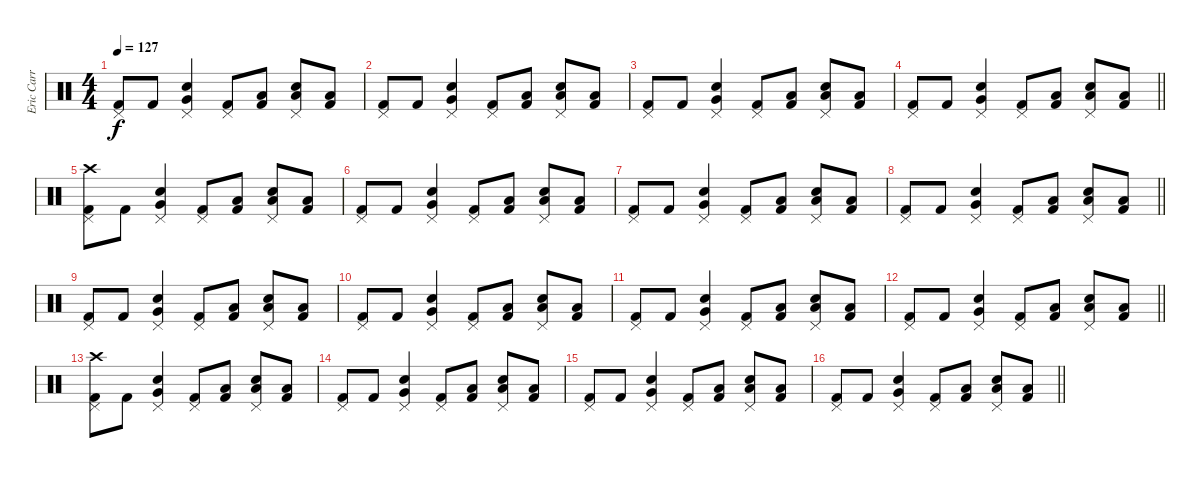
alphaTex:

\track ("Eric Carr (Drums)" "Eric Carr ") {instrument percussion}
\staff {score}
\articulation defaults
\ts (4 4)
\tempo 127
\clef neutral
\ks c
("Pedal Hi-Hat (hit)" "Kick (hit) 2").8{dy f} "Kick (hit) 2".8 ("Pedal Hi-Hat (hit)" "Very Low Tom (hit)" "Snare (hit) 2").4 ("Pedal Hi-Hat (hit)" "Kick (hit) 2").8 ("Low Tom (hit)" "Kick (hit) 2").8 ("Pedal Hi-Hat (hit)" "Low Floor Tom (hit)" "Snare (hit) 2").8 ("Low Tom (hit)" "Kick (hit) 2").8 |
("Pedal Hi-Hat (hit)" "Kick (hit) 2").8 "Kick (hit) 2".8 ("Pedal Hi-Hat (hit)" "Very Low Tom (hit)" "Snare (hit) 2").4 ("Pedal Hi-Hat (hit)" "Kick (hit) 2").8 ("Low Tom (hit)" "Kick (hit) 2").8 ("Pedal Hi-Hat (hit)" "Low Floor Tom (hit)" "Snare (hit) 2").8 ("Low Tom (hit)" "Kick (hit) 2").8 |
("Pedal Hi-Hat (hit)" "Kick (hit) 2").8 "Kick (hit) 2".8 ("Pedal Hi-Hat (hit)" "Very Low Tom (hit)" "Snare (hit) 2").4 ("Pedal Hi-Hat (hit)" "Kick (hit) 2").8 ("Low Tom (hit)" "Kick (hit) 2").8 ("Pedal Hi-Hat (hit)" "Low Floor Tom (hit)" "Snare (hit) 2").8 ("Low Tom (hit)" "Kick (hit) 2").8 |
\barLineRight lightlight
("Pedal Hi-Hat (hit)" "Kick (hit) 2").8 "Kick (hit) 2".8 ("Pedal Hi-Hat (hit)" "Very Low Tom (hit)" "Snare (hit) 2").4 ("Pedal Hi-Hat (hit)" "Kick (hit) 2").8 ("Low Tom (hit)" "Kick (hit) 2").8 ("Pedal Hi-Hat (hit)" "Low Floor Tom (hit)" "Snare (hit) 2").8 ("Low Tom (hit)" "Kick (hit) 2").8 |
("Crash high (hit)" "Pedal Hi-Hat (hit)" "Kick (hit) 2").8 "Kick (hit) 2".8 ("Pedal Hi-Hat (hit)" "Very Low Tom (hit)" "Snare (hit) 2").4 ("Pedal Hi-Hat (hit)" "Kick (hit) 2").8 ("Low Tom (hit)" "Kick (hit) 2").8 ("Pedal Hi-Hat (hit)" "Low Floor Tom (hit)" "Snare (hit) 2").8 ("Low Tom (hit)" "Kick (hit) 2").8 |
("Pedal Hi-Hat (hit)" "Kick (hit) 2").8 "Kick (hit) 2".8 ("Pedal Hi-Hat (hit)" "Very Low Tom (hit)" "Snare (hit) 2").4 ("Pedal Hi-Hat (hit)" "Kick (hit) 2").8 ("Low Tom (hit)" "Kick (hit) 2").8 ("Pedal Hi-Hat (hit)" "Low Floor Tom (hit)" "Snare (hit) 2").8 ("Low Tom (hit)" "Kick (hit) 2").8 |
("Pedal Hi-Hat (hit)" "Kick (hit) 2").8 "Kick (hit) 2".8 ("Pedal Hi-Hat (hit)" "Very Low Tom (hit)" "Snare (hit) 2").4 ("Pedal Hi-Hat (hit)" "Kick (hit) 2").8 ("Low Tom (hit)" "Kick (hit) 2").8 ("Pedal Hi-Hat (hit)" "Low Floor Tom (hit)" "Snare (hit) 2").8 ("Low Tom (hit)" "Kick (hit) 2").8 |
\barLineRight lightlight
("Pedal Hi-Hat (hit)" "Kick (hit) 2").8 "Kick (hit) 2".8 ("Pedal Hi-Hat (hit)" "Very Low Tom (hit)" "Snare (hit) 2").4 ("Pedal Hi-Hat (hit)" "Kick (hit) 2").8 ("Low Tom (hit)" "Kick (hit) 2").8 ("Pedal Hi-Hat (hit)" "Low Floor Tom (hit)" "Snare (hit) 2").8 ("Low Tom (hit)" "Kick (hit) 2").8 |
("Pedal Hi-Hat (hit)" "Kick (hit) 2").8 "Kick (hit) 2".8 ("Pedal Hi-Hat (hit)" "Very Low Tom (hit)" "Snare (hit) 2").4 ("Pedal Hi-Hat (hit)" "Kick (hit) 2").8 ("Low Tom (hit)" "Kick (hit) 2").8 ("Pedal Hi-Hat (hit)" "Low Floor Tom (hit)" "Snare (hit) 2").8 ("Low Tom (hit)" "Kick (hit) 2").8 |
("Pedal Hi-Hat (hit)" "Kick (hit) 2").8 "Kick (hit) 2".8 ("Pedal Hi-Hat (hit)" "Very Low Tom (hit)" "Snare (hit) 2").4 ("Pedal Hi-Hat (hit)" "Kick (hit) 2").8 ("Low Tom (hit)" "Kick (hit) 2").8 ("Pedal Hi-Hat (hit)" "Low Floor Tom (hit)" "Snare (hit) 2").8 ("Low Tom (hit)" "Kick (hit) 2").8 |
("Pedal Hi-Hat (hit)" "Kick (hit) 2").8 "Kick (hit) 2".8 ("Pedal Hi-Hat (hit)" "Very Low Tom (hit)" "Snare (hit) 2").4 ("Pedal Hi-Hat (hit)" "Kick (hit) 2").8 ("Low Tom (hit)" "Kick (hit) 2").8 ("Pedal Hi-Hat (hit)" "Low Floor Tom (hit)" "Snare (hit) 2").8 ("Low Tom (hit)" "Kick (hit) 2").8 |
\barLineRight lightlight
("Pedal Hi-Hat (hit)" "Kick (hit) 2").8 "Kick (hit) 2".8 ("Pedal Hi-Hat (hit)" "Very Low Tom (hit)" "Snare (hit) 2").4 ("Pedal Hi-Hat (hit)" "Kick (hit) 2").8 ("Low Tom (hit)" "Kick (hit) 2").8 ("Pedal Hi-Hat (hit)" "Low Floor Tom (hit)" "Snare (hit) 2").8 ("Low Tom (hit)" "Kick (hit) 2").8 |
("Crash high (hit)" "Pedal Hi-Hat (hit)" "Kick (hit) 2").8 "Kick (hit) 2".8 ("Pedal Hi-Hat (hit)" "Very Low Tom (hit)" "Snare (hit) 2").4 ("Pedal Hi-Hat (hit)" "Kick (hit) 2").8 ("Low Tom (hit)" "Kick (hit) 2").8 ("Pedal Hi-Hat (hit)" "Low Floor Tom (hit)" "Snare (hit) 2").8 ("Low Tom (hit)" "Kick (hit) 2").8 |
("Pedal Hi-Hat (hit)" "Kick (hit) 2").8 "Kick (hit) 2".8 ("Pedal Hi-Hat (hit)" "Very Low Tom (hit)" "Snare (hit) 2").4 ("Pedal Hi-Hat (hit)" "Kick (hit) 2").8 ("Low Tom (hit)" "Kick (hit) 2").8 ("Pedal Hi-Hat (hit)" "Low Floor Tom (hit)" "Snare (hit) 2").8 ("Low Tom (hit)" "Kick (hit) 2").8 |
("Pedal Hi-Hat (hit)" "Kick (hit) 2").8 "Kick (hit) 2".8 ("Pedal Hi-Hat (hit)" "Very Low Tom (hit)" "Snare (hit) 2").4 ("Pedal Hi-Hat (hit)" "Kick (hit) 2").8 ("Low Tom (hit)" "Kick (hit) 2").8 ("Pedal Hi-Hat (hit)" "Low Floor Tom (hit)" "Snare (hit) 2").8 ("Low Tom (hit)" "Kick (hit) 2").8 |
\barLineRight lightlight
("Pedal Hi-Hat (hit)" "Kick (hit) 2").8 "Kick (hit) 2".8 ("Pedal Hi-Hat (hit)" "Very Low Tom (hit)" "Snare (hit) 2").4 ("Pedal Hi-Hat (hit)" "Kick (hit) 2").8 ("Low Tom (hit)" "Kick (hit) 2").8 ("Pedal Hi-Hat (hit)" "Low Floor Tom (hit)" "Snare (hit) 2").8 ("Low Tom (hit)" "Kick (hit) 2").8
